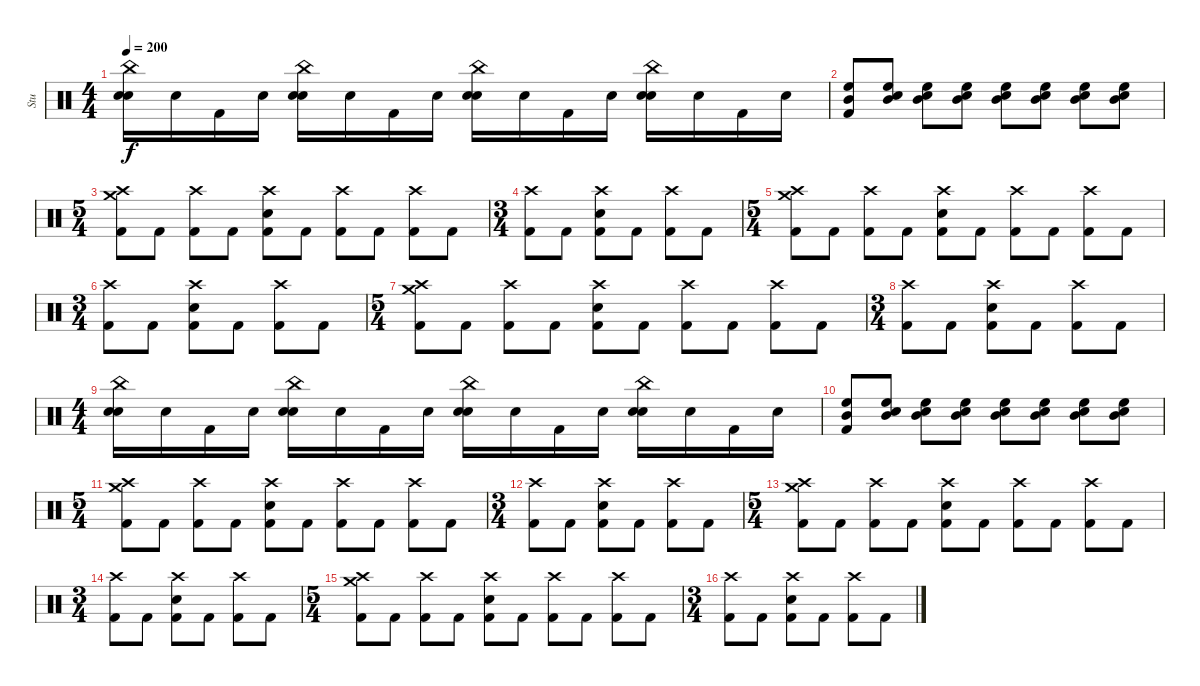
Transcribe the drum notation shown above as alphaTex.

\track ("Stu" "Stu") {instrument percussion}
\staff {score}
\articulation defaults
\ts (4 4)
\tempo 200
\clef neutral
\ks c
("China (hit)" "Electric Snare (hit)" "Snare (hit)"{x}).16{dy f} "Snare (hit)"{x}.16 "Kick (hit) 2".16 "Snare (hit)"{x}.16 ("China (hit)" "Electric Snare (hit)" "Snare (hit)"{x}).16 "Snare (hit)"{x}.16 "Kick (hit) 2".16 "Snare (hit)"{x}.16 ("China (hit)" "Electric Snare (hit)" "Snare (hit)"{x}).16 "Snare (hit)"{x}.16 "Kick (hit) 2".16 "Snare (hit)"{x}.16 ("China (hit)" "Electric Snare (hit)" "Snare (hit)"{x}).16 "Snare (hit)"{x}.16 "Kick (hit) 2".16 "Snare (hit)"{x}.16 |
("High Floor Tom (hit)" "Mid Tom (hit)" "Kick (hit) 2"{x}).8 ("High Floor Tom (hit)" "Mid Tom (hit)" "Snare (hit)"{x}).8 ("High Floor Tom (hit)" "Mid Tom (hit)" "Snare (hit)"{x}).8 ("High Floor Tom (hit)" "Mid Tom (hit)" "Snare (hit)"{x}).8 ("High Floor Tom (hit)" "Mid Tom (hit)" "Snare (hit)"{x}).8 ("High Floor Tom (hit)" "Mid Tom (hit)" "Snare (hit)"{x}).8 ("High Floor Tom (hit)" "Mid Tom (hit)" "Snare (hit)"{x}).8 ("High Floor Tom (hit)" "Mid Tom (hit)" "Snare (hit)"{x}).8 |
\ts (5 4)
("Crash medium (hit)" "Crash high (hit)" "Kick (hit) 2").8 "Kick (hit) 2".8 ("Crash high (hit)" "Kick (hit) 2").8 "Kick (hit) 2".8 ("Crash high (hit)" "Electric Snare (hit)" "Kick (hit) 2").8 "Kick (hit) 2".8 ("Crash high (hit)" "Kick (hit) 2").8 "Kick (hit) 2".8 ("Crash high (hit)" "Kick (hit) 2").8 "Kick (hit) 2".8 |
\ts (3 4)
("Crash high (hit)" "Kick (hit) 2").8 "Kick (hit) 2".8 ("Crash high (hit)" "Electric Snare (hit)" "Kick (hit) 2").8 "Kick (hit) 2".8 ("Crash high (hit)" "Kick (hit) 2").8 "Kick (hit) 2".8 |
\ts (5 4)
("Crash medium (hit)" "Crash high (hit)" "Kick (hit) 2").8 "Kick (hit) 2".8 ("Crash high (hit)" "Kick (hit) 2").8 "Kick (hit) 2".8 ("Crash high (hit)" "Electric Snare (hit)" "Kick (hit) 2").8 "Kick (hit) 2".8 ("Crash high (hit)" "Kick (hit) 2").8 "Kick (hit) 2".8 ("Crash high (hit)" "Kick (hit) 2").8 "Kick (hit) 2".8 |
\ts (3 4)
("Crash high (hit)" "Kick (hit) 2").8 "Kick (hit) 2".8 ("Crash high (hit)" "Electric Snare (hit)" "Kick (hit) 2").8 "Kick (hit) 2".8 ("Crash high (hit)" "Kick (hit) 2").8 "Kick (hit) 2".8 |
\ts (5 4)
("Crash medium (hit)" "Crash high (hit)" "Kick (hit) 2").8 "Kick (hit) 2".8 ("Crash high (hit)" "Kick (hit) 2").8 "Kick (hit) 2".8 ("Crash high (hit)" "Electric Snare (hit)" "Kick (hit) 2").8 "Kick (hit) 2".8 ("Crash high (hit)" "Kick (hit) 2").8 "Kick (hit) 2".8 ("Crash high (hit)" "Kick (hit) 2").8 "Kick (hit) 2".8 |
\ts (3 4)
("Crash high (hit)" "Kick (hit) 2").8 "Kick (hit) 2".8 ("Crash high (hit)" "Electric Snare (hit)" "Kick (hit) 2").8 "Kick (hit) 2".8 ("Crash high (hit)" "Kick (hit) 2").8 "Kick (hit) 2".8 |
\ts (4 4)
("China (hit)" "Electric Snare (hit)" "Snare (hit)"{x}).16 "Snare (hit)"{x}.16 "Kick (hit) 2".16 "Snare (hit)"{x}.16 ("China (hit)" "Electric Snare (hit)" "Snare (hit)"{x}).16 "Snare (hit)"{x}.16 "Kick (hit) 2".16 "Snare (hit)"{x}.16 ("China (hit)" "Electric Snare (hit)" "Snare (hit)"{x}).16 "Snare (hit)"{x}.16 "Kick (hit) 2".16 "Snare (hit)"{x}.16 ("China (hit)" "Electric Snare (hit)" "Snare (hit)"{x}).16 "Snare (hit)"{x}.16 "Kick (hit) 2".16 "Snare (hit)"{x}.16 |
("High Floor Tom (hit)" "Mid Tom (hit)" "Kick (hit) 2"{x}).8 ("High Floor Tom (hit)" "Mid Tom (hit)" "Snare (hit)"{x}).8 ("High Floor Tom (hit)" "Mid Tom (hit)" "Snare (hit)"{x}).8 ("High Floor Tom (hit)" "Mid Tom (hit)" "Snare (hit)"{x}).8 ("High Floor Tom (hit)" "Mid Tom (hit)" "Snare (hit)"{x}).8 ("High Floor Tom (hit)" "Mid Tom (hit)" "Snare (hit)"{x}).8 ("High Floor Tom (hit)" "Mid Tom (hit)" "Snare (hit)"{x}).8 ("High Floor Tom (hit)" "Mid Tom (hit)" "Snare (hit)"{x}).8 |
\ts (5 4)
("Crash medium (hit)" "Crash high (hit)" "Kick (hit) 2").8 "Kick (hit) 2".8 ("Crash high (hit)" "Kick (hit) 2").8 "Kick (hit) 2".8 ("Crash high (hit)" "Electric Snare (hit)" "Kick (hit) 2").8 "Kick (hit) 2".8 ("Crash high (hit)" "Kick (hit) 2").8 "Kick (hit) 2".8 ("Crash high (hit)" "Kick (hit) 2").8 "Kick (hit) 2".8 |
\ts (3 4)
("Crash high (hit)" "Kick (hit) 2").8 "Kick (hit) 2".8 ("Crash high (hit)" "Electric Snare (hit)" "Kick (hit) 2").8 "Kick (hit) 2".8 ("Crash high (hit)" "Kick (hit) 2").8 "Kick (hit) 2".8 |
\ts (5 4)
("Crash medium (hit)" "Crash high (hit)" "Kick (hit) 2").8 "Kick (hit) 2".8 ("Crash high (hit)" "Kick (hit) 2").8 "Kick (hit) 2".8 ("Crash high (hit)" "Electric Snare (hit)" "Kick (hit) 2").8 "Kick (hit) 2".8 ("Crash high (hit)" "Kick (hit) 2").8 "Kick (hit) 2".8 ("Crash high (hit)" "Kick (hit) 2").8 "Kick (hit) 2".8 |
\ts (3 4)
("Crash high (hit)" "Kick (hit) 2").8 "Kick (hit) 2".8 ("Crash high (hit)" "Electric Snare (hit)" "Kick (hit) 2").8 "Kick (hit) 2".8 ("Crash high (hit)" "Kick (hit) 2").8 "Kick (hit) 2".8 |
\ts (5 4)
("Crash medium (hit)" "Crash high (hit)" "Kick (hit) 2").8 "Kick (hit) 2".8 ("Crash high (hit)" "Kick (hit) 2").8 "Kick (hit) 2".8 ("Crash high (hit)" "Electric Snare (hit)" "Kick (hit) 2").8 "Kick (hit) 2".8 ("Crash high (hit)" "Kick (hit) 2").8 "Kick (hit) 2".8 ("Crash high (hit)" "Kick (hit) 2").8 "Kick (hit) 2".8 |
\ts (3 4)
("Crash high (hit)" "Kick (hit) 2").8 "Kick (hit) 2".8 ("Crash high (hit)" "Electric Snare (hit)" "Kick (hit) 2").8 "Kick (hit) 2".8 ("Crash high (hit)" "Kick (hit) 2").8 "Kick (hit) 2".8
